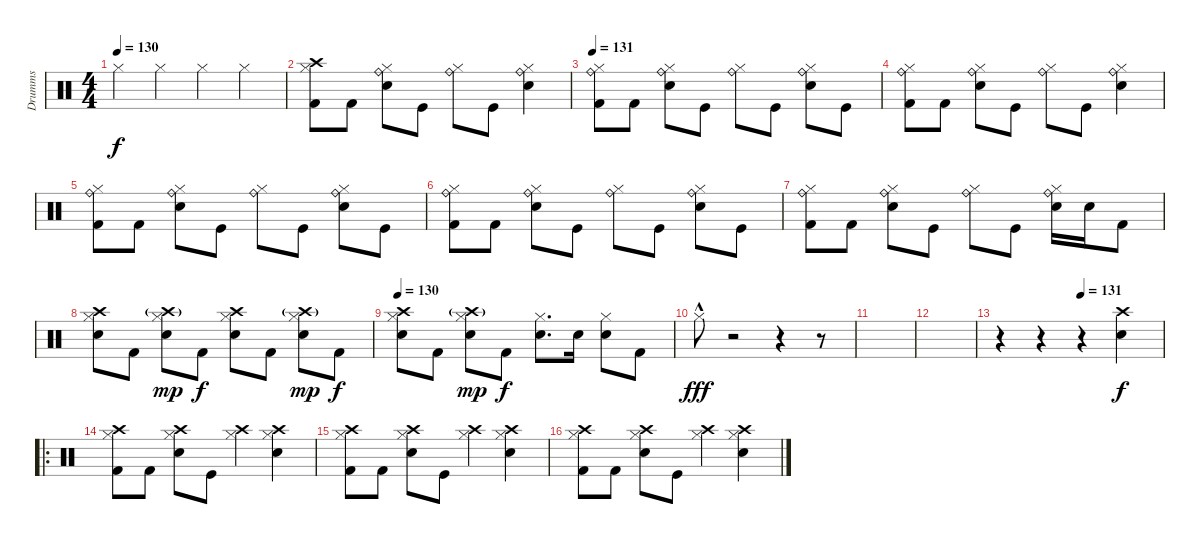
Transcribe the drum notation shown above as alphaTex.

\track ("Drumms" "Drumms") {instrument percussion}
\staff {score}
\articulation defaults
\ts (4 4)
\tempo 130
\clef neutral
\ks c "Hi-Hat (closed)".4{dy f} "Hi-Hat (closed)".4 "Hi-Hat (closed)".4 "Hi-Hat (closed)".4
|
("Crash high (hit)" "Kick (hit) 2" "Hi-Hat (closed)").8 "Kick (hit) 2".8 ("Snare (hit) 2" "Ride (bell)" "Hi-Hat (closed)").8 "Kick (hit)".8 ("Ride (bell)" "Hi-Hat (closed)").8 "Kick (hit)".8 ("Snare (hit) 2" "Hi-Hat (closed)" "Ride (bell)").4 |
\tempo 131
("Ride (bell)" "Kick (hit) 2" "Hi-Hat (closed)").8 "Kick (hit) 2".8 ("Snare (hit) 2" "Ride (bell)" "Hi-Hat (closed)").8 "Kick (hit)".8 ("Ride (bell)" "Hi-Hat (closed)").8 "Kick (hit)".8 ("Snare (hit) 2" "Ride (bell)" "Hi-Hat (closed)").8 "Kick (hit)".8 |
("Ride (bell)" "Kick (hit) 2" "Hi-Hat (closed)").8 "Kick (hit) 2".8 ("Snare (hit) 2" "Ride (bell)" "Hi-Hat (closed)").8 "Kick (hit)".8 ("Ride (bell)" "Hi-Hat (closed)").8 "Kick (hit)".8 ("Snare (hit) 2" "Ride (bell)" "Hi-Hat (closed)").4 |
("Ride (bell)" "Kick (hit) 2" "Hi-Hat (closed)").8 "Kick (hit) 2".8 ("Snare (hit) 2" "Ride (bell)" "Hi-Hat (closed)").8 "Kick (hit)".8 ("Ride (bell)" "Hi-Hat (closed)").8 "Kick (hit)".8 ("Snare (hit) 2" "Ride (bell)" "Hi-Hat (closed)").8 "Kick (hit)".8 |
("Ride (bell)" "Kick (hit) 2" "Hi-Hat (closed)").8 "Kick (hit) 2".8 ("Snare (hit) 2" "Ride (bell)" "Hi-Hat (closed)").8 "Kick (hit)".8 ("Ride (bell)" "Hi-Hat (closed)").8 "Kick (hit)".8 ("Snare (hit) 2" "Ride (bell)" "Hi-Hat (closed)").8 "Kick (hit)".8 |
("Ride (bell)" "Kick (hit) 2" "Hi-Hat (closed)").8 "Kick (hit) 2".8 ("Snare (hit) 2" "Ride (bell)" "Hi-Hat (closed)").8 "Kick (hit)".8 ("Ride (bell)" "Hi-Hat (closed)").8 "Kick (hit)".8 ("Snare (hit) 2" "Ride (bell)" "Hi-Hat (closed)").16 "Snare (hit) 2".16 "Kick (hit) 2".8 |
("Crash high (hit)" "Snare (hit) 2" "Hi-Hat (closed)").8 "Kick (hit) 2".8 ("Crash high (hit)"{g} "Snare (hit) 2" "Hi-Hat (closed)").8{dy mp} "Kick (hit) 2".8{dy f} ("Crash high (hit)" "Snare (hit) 2" "Hi-Hat (closed)").8 "Kick (hit) 2".8 ("Crash high (hit)"{g} "Snare (hit) 2" "Hi-Hat (closed)").8{dy mp} "Kick (hit) 2".8{dy f} |
\tempo 130
("Crash high (hit)" "Snare (hit) 2" "Hi-Hat (closed)").8 "Kick (hit) 2".8 ("Crash high (hit)"{g} "Snare (hit) 2" "Hi-Hat (closed)").8{dy mp} "Kick (hit) 2".8{dy f} ("Hi-Hat (closed)" "Snare (hit) 2").8{d} "Snare (hit) 2".16 ("Hi-Hat (closed)" "Snare (hit) 2").8 "Kick (hit) 2".8 |
"Hi-Hat (closed)"{hac}.8{dy fff} r.2 r.4 r.8 |
|
|
\tempo (131 0.5)
r.4 r.4 r.4 ("Snare (hit) 2" "Crash high (hit)").4{dy f} |
\ro
("Crash high (hit)" "Kick (hit) 2" "Hi-Hat (closed)").8 "Kick (hit) 2".8 ("Snare (hit) 2" "Crash high (hit)" "Hi-Hat (closed)").8 "Kick (hit)".8 ("Crash high (hit)" "Hi-Hat (closed)").4 ("Hi-Hat (closed)" "Snare (hit) 2" "Crash high (hit)").4 |
("Crash high (hit)" "Kick (hit) 2" "Hi-Hat (closed)").8 "Kick (hit) 2".8 ("Snare (hit) 2" "Crash high (hit)" "Hi-Hat (closed)").8 "Kick (hit)".8 ("Crash high (hit)" "Hi-Hat (closed)").4 ("Hi-Hat (closed)" "Snare (hit) 2" "Crash high (hit)").4 |
("Crash high (hit)" "Kick (hit) 2" "Hi-Hat (closed)").8 "Kick (hit) 2".8 ("Snare (hit) 2" "Crash high (hit)" "Hi-Hat (closed)").8 "Kick (hit)".8 ("Crash high (hit)" "Hi-Hat (closed)").4 ("Hi-Hat (closed)" "Snare (hit) 2" "Crash high (hit)").4
